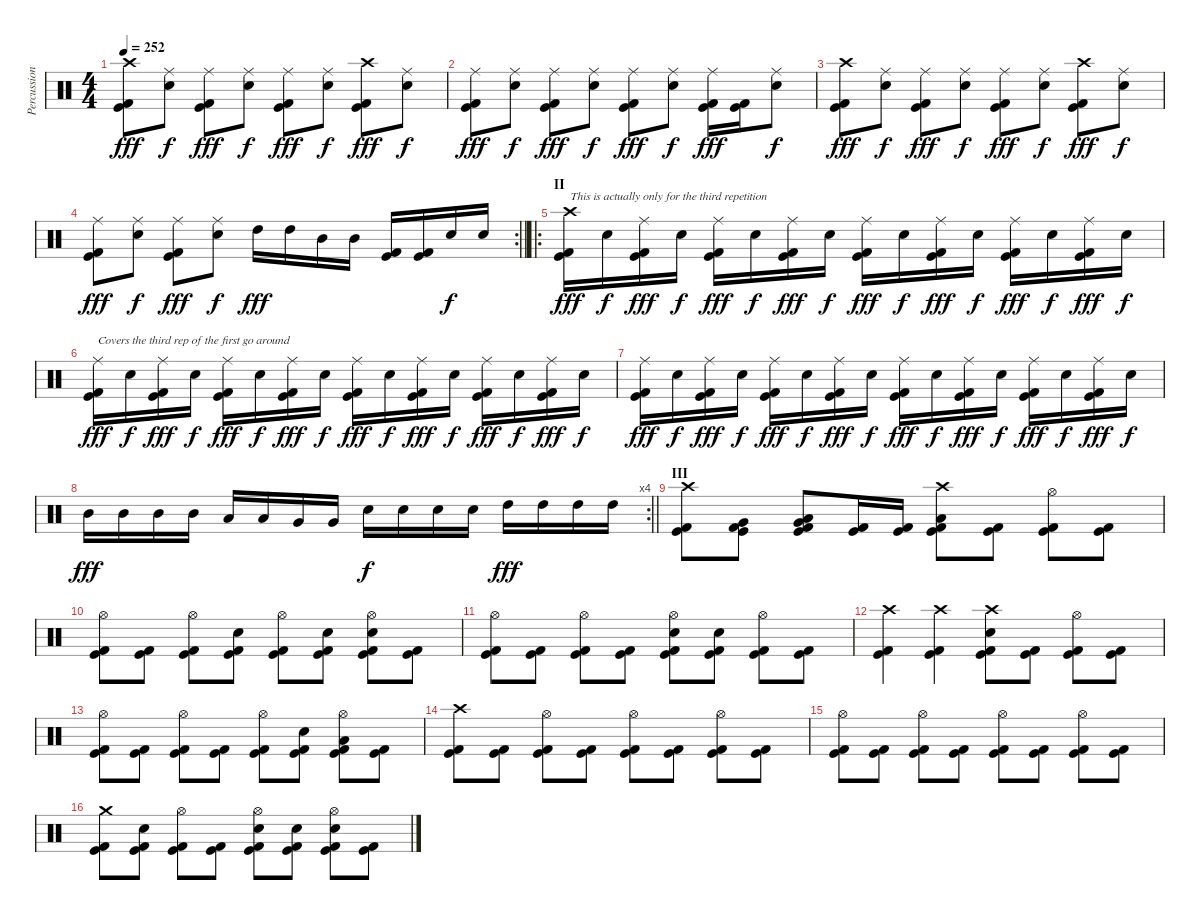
\track ("Percussion" "Percussion") {mute instrument percussion}
\staff {score}
\articulation defaults
\ts (4 4)
\tempo 252
\clef neutral
\ks c
("Crash high (hit)" "Kick (hit)" "Kick (hit) 2").8{dy fff} ("Ride (middle)" "Electric Snare (hit)").8{dy f} ("Ride (middle)" "Kick (hit)" "Kick (hit) 2").8{dy fff} ("Ride (middle)" "Electric Snare (hit)").8{dy f} ("Ride (middle)" "Kick (hit)" "Kick (hit) 2").8{dy fff} ("Ride (middle)" "Electric Snare (hit)").8{dy f} ("Crash high (hit)" "Kick (hit)" "Kick (hit) 2").8{dy fff} ("Ride (middle)" "Electric Snare (hit)").8{dy f} |
("Ride (middle)" "Kick (hit)" "Kick (hit) 2").8{dy fff} ("Ride (middle)" "Electric Snare (hit)").8{dy f} ("Ride (middle)" "Kick (hit)" "Kick (hit) 2").8{dy fff} ("Ride (middle)" "Electric Snare (hit)").8{dy f} ("Ride (middle)" "Kick (hit)" "Kick (hit) 2").8{dy fff} ("Ride (middle)" "Electric Snare (hit)").8{dy f} ("Ride (middle)" "Kick (hit)" "Kick (hit) 2").16{dy fff} ("Kick (hit)" "Kick (hit) 2").16 ("Ride (middle)" "Electric Snare (hit)").8{dy f} |
("Crash high (hit)" "Kick (hit)" "Kick (hit) 2").8{dy fff} ("Ride (middle)" "Electric Snare (hit)").8{dy f} ("Ride (middle)" "Kick (hit)" "Kick (hit) 2").8{dy fff} ("Ride (middle)" "Electric Snare (hit)").8{dy f} ("Ride (middle)" "Kick (hit)" "Kick (hit) 2").8{dy fff} ("Ride (middle)" "Electric Snare (hit)").8{dy f} ("Crash high (hit)" "Kick (hit)" "Kick (hit) 2").8{dy fff} ("Ride (middle)" "Electric Snare (hit)").8{dy f} |
\rc 2
\barLineRight lightlight
("Ride (middle)" "Kick (hit)" "Kick (hit) 2").8{dy fff} ("Ride (middle)" "Electric Snare (hit)").8{dy f} ("Ride (middle)" "Kick (hit)" "Kick (hit) 2").8{dy fff} ("Ride (middle)" "Electric Snare (hit)").8{dy f} "High Tom (hit)".16{dy fff} "High Tom (hit)".16 "Mid Tom (hit)".16 "Mid Tom (hit)".16 ("Kick (hit)" "Kick (hit) 2").16 ("Kick (hit)" "Kick (hit) 2").16 "Electric Snare (hit)".16{dy f} "Electric Snare (hit)".16 |
\ro
\section ("" "II")
("Crash high (hit)" "Kick (hit)" "Kick (hit) 2").16{txt "This is actually only for the third repetition" dy fff} "Electric Snare (hit)".16{dy f} ("Ride (middle)" "Kick (hit)" "Kick (hit) 2").16{dy fff} "Electric Snare (hit)".16{dy f} ("Ride (middle)" "Kick (hit)" "Kick (hit) 2").16{dy fff} "Electric Snare (hit)".16{dy f} ("Ride (middle)" "Kick (hit)" "Kick (hit) 2").16{dy fff} "Electric Snare (hit)".16{dy f} ("Ride (middle)" "Kick (hit)" "Kick (hit) 2").16{dy fff} "Electric Snare (hit)".16{dy f} ("Ride (middle)" "Kick (hit)" "Kick (hit) 2").16{dy fff} "Electric Snare (hit)".16{dy f} ("Ride (middle)" "Kick (hit)" "Kick (hit) 2").16{dy fff} "Electric Snare (hit)".16{dy f} ("Ride (middle)" "Kick (hit)" "Kick (hit) 2").16{dy fff} "Electric Snare (hit)".16{dy f} |
("Ride (middle)" "Kick (hit)" "Kick (hit) 2").16{txt "Covers the third rep of the first go around" dy fff} "Electric Snare (hit)".16{dy f} ("Ride (middle)" "Kick (hit)" "Kick (hit) 2").16{dy fff} "Electric Snare (hit)".16{dy f} ("Ride (middle)" "Kick (hit)" "Kick (hit) 2").16{dy fff} "Electric Snare (hit)".16{dy f} ("Ride (middle)" "Kick (hit)" "Kick (hit) 2").16{dy fff} "Electric Snare (hit)".16{dy f} ("Ride (middle)" "Kick (hit)" "Kick (hit) 2").16{dy fff} "Electric Snare (hit)".16{dy f} ("Ride (middle)" "Kick (hit)" "Kick (hit) 2").16{dy fff} "Electric Snare (hit)".16{dy f} ("Ride (middle)" "Kick (hit)" "Kick (hit) 2").16{dy fff} "Electric Snare (hit)".16{dy f} ("Ride (middle)" "Kick (hit)" "Kick (hit) 2").16{dy fff} "Electric Snare (hit)".16{dy f} |
("Ride (middle)" "Kick (hit)" "Kick (hit) 2").16{dy fff} "Electric Snare (hit)".16{dy f} ("Ride (middle)" "Kick (hit)" "Kick (hit) 2").16{dy fff} "Electric Snare (hit)".16{dy f} ("Ride (middle)" "Kick (hit)" "Kick (hit) 2").16{dy fff} "Electric Snare (hit)".16{dy f} ("Ride (middle)" "Kick (hit)" "Kick (hit) 2").16{dy fff} "Electric Snare (hit)".16{dy f} ("Ride (middle)" "Kick (hit)" "Kick (hit) 2").16{dy fff} "Electric Snare (hit)".16{dy f} ("Ride (middle)" "Kick (hit)" "Kick (hit) 2").16{dy fff} "Electric Snare (hit)".16{dy f} ("Ride (middle)" "Kick (hit)" "Kick (hit) 2").16{dy fff} "Electric Snare (hit)".16{dy f} ("Ride (middle)" "Kick (hit)" "Kick (hit) 2").16{dy fff} "Electric Snare (hit)".16{dy f} |
\rc 4
\barLineRight lightlight "Mid Tom (hit)".16{dy fff} "Mid Tom (hit)".16 "Mid Tom (hit)".16 "Mid Tom (hit)".16 "Low Tom (hit)".16 "Low Tom (hit)".16 "Very Low Tom (hit)".16 "Very Low Tom (hit)".16 "Electric Snare (hit)".16{dy f} "Electric Snare (hit)".16 "Electric Snare (hit)".16 "Electric Snare (hit)".16 "High Tom (hit)".16{dy fff} "High Tom (hit)".16 "High Tom (hit)".16 "High Tom (hit)".16
|
\section ("" "III")
("Crash high (hit)" "Kick (hit)" "Kick (hit) 2").8 ("Very Low Tom (hit)" "Kick (hit)" "Kick (hit) 2").8 ("Low Tom (hit)" "Very Low Tom (hit)" "Kick (hit)" "Kick (hit) 2").8 ("Kick (hit)" "Kick (hit) 2").16 ("Kick (hit)" "Kick (hit) 2").16 ("Crash high (hit)" "Low Floor Tom (hit)" "Kick (hit)" "Kick (hit) 2").8 ("Kick (hit)" "Kick (hit) 2").8 ("Hi-Hat (open)" "Kick (hit)" "Kick (hit) 2").8 ("Kick (hit)" "Kick (hit) 2").8 |
("Hi-Hat (open)" "Kick (hit)" "Kick (hit) 2").8 ("Kick (hit)" "Kick (hit) 2").8 ("Hi-Hat (open)" "Kick (hit)" "Kick (hit) 2").8 ("Electric Snare (hit)" "Kick (hit)" "Kick (hit) 2").8 ("Hi-Hat (open)" "Kick (hit)" "Kick (hit) 2").8 ("Electric Snare (hit)" "Kick (hit)" "Kick (hit) 2").8 ("Hi-Hat (open)" "Electric Snare (hit)" "Kick (hit)" "Kick (hit) 2").8 ("Kick (hit)" "Kick (hit) 2").8 |
("Hi-Hat (open)" "Kick (hit)" "Kick (hit) 2").8 ("Kick (hit)" "Kick (hit) 2").8 ("Hi-Hat (open)" "Kick (hit)" "Kick (hit) 2").8 ("Kick (hit)" "Kick (hit) 2").8 ("Hi-Hat (open)" "Electric Snare (hit)" "Kick (hit)" "Kick (hit) 2").8 ("Electric Snare (hit)" "Kick (hit)" "Kick (hit) 2").8 ("Hi-Hat (open)" "Kick (hit)" "Kick (hit) 2").8 ("Kick (hit)" "Kick (hit) 2").8 |
("Crash high (hit)" "Kick (hit)" "Kick (hit) 2").4 ("Crash high (hit)" "Kick (hit)" "Kick (hit) 2").4 ("Crash high (hit)" "Electric Snare (hit)" "Kick (hit)" "Kick (hit) 2").8 ("Kick (hit)" "Kick (hit) 2").8 ("Hi-Hat (open)" "Kick (hit)" "Kick (hit) 2").8 ("Kick (hit)" "Kick (hit) 2").8 |
("Hi-Hat (open)" "Kick (hit)" "Kick (hit) 2").8 ("Kick (hit)" "Kick (hit) 2").8 ("Hi-Hat (open)" "Kick (hit)" "Kick (hit) 2").8 ("Kick (hit)" "Kick (hit) 2").8 ("Hi-Hat (open)" "Kick (hit)" "Kick (hit) 2").8 ("Electric Snare (hit)" "Kick (hit)" "Kick (hit) 2").8 ("Hi-Hat (open)" "Low Tom (hit)" "Kick (hit)" "Kick (hit) 2").8 ("Kick (hit)" "Kick (hit) 2").8 |
("Crash high (hit)" "Kick (hit)" "Kick (hit) 2").8 ("Kick (hit)" "Kick (hit) 2").8 ("Hi-Hat (open)" "Kick (hit)" "Kick (hit) 2").8 ("Kick (hit)" "Kick (hit) 2").8 ("Hi-Hat (open)" "Kick (hit)" "Kick (hit) 2").8 ("Kick (hit)" "Kick (hit) 2").8 ("Hi-Hat (open)" "Kick (hit)" "Kick (hit) 2").8 ("Kick (hit)" "Kick (hit) 2").8 |
("Hi-Hat (open)" "Kick (hit)" "Kick (hit) 2").8 ("Kick (hit)" "Kick (hit) 2").8 ("Hi-Hat (open)" "Kick (hit)" "Kick (hit) 2").8 ("Kick (hit)" "Kick (hit) 2").8 ("Hi-Hat (open)" "Kick (hit)" "Kick (hit) 2").8 ("Kick (hit)" "Kick (hit) 2").8 ("Hi-Hat (open)" "Kick (hit)" "Kick (hit) 2").8 ("Kick (hit)" "Kick (hit) 2").8 |
("Crash medium (hit)" "Kick (hit)" "Kick (hit) 2").8 ("Electric Snare (hit)" "Kick (hit)" "Kick (hit) 2").8 ("Hi-Hat (open)" "Kick (hit)" "Kick (hit) 2").8 ("Kick (hit)" "Kick (hit) 2").8 ("Hi-Hat (open)" "Electric Snare (hit)" "Kick (hit)" "Kick (hit) 2").8 ("Electric Snare (hit)" "Kick (hit)" "Kick (hit) 2").8 ("Hi-Hat (open)" "Electric Snare (hit)" "Kick (hit)" "Kick (hit) 2").8 ("Kick (hit)" "Kick (hit) 2").8
